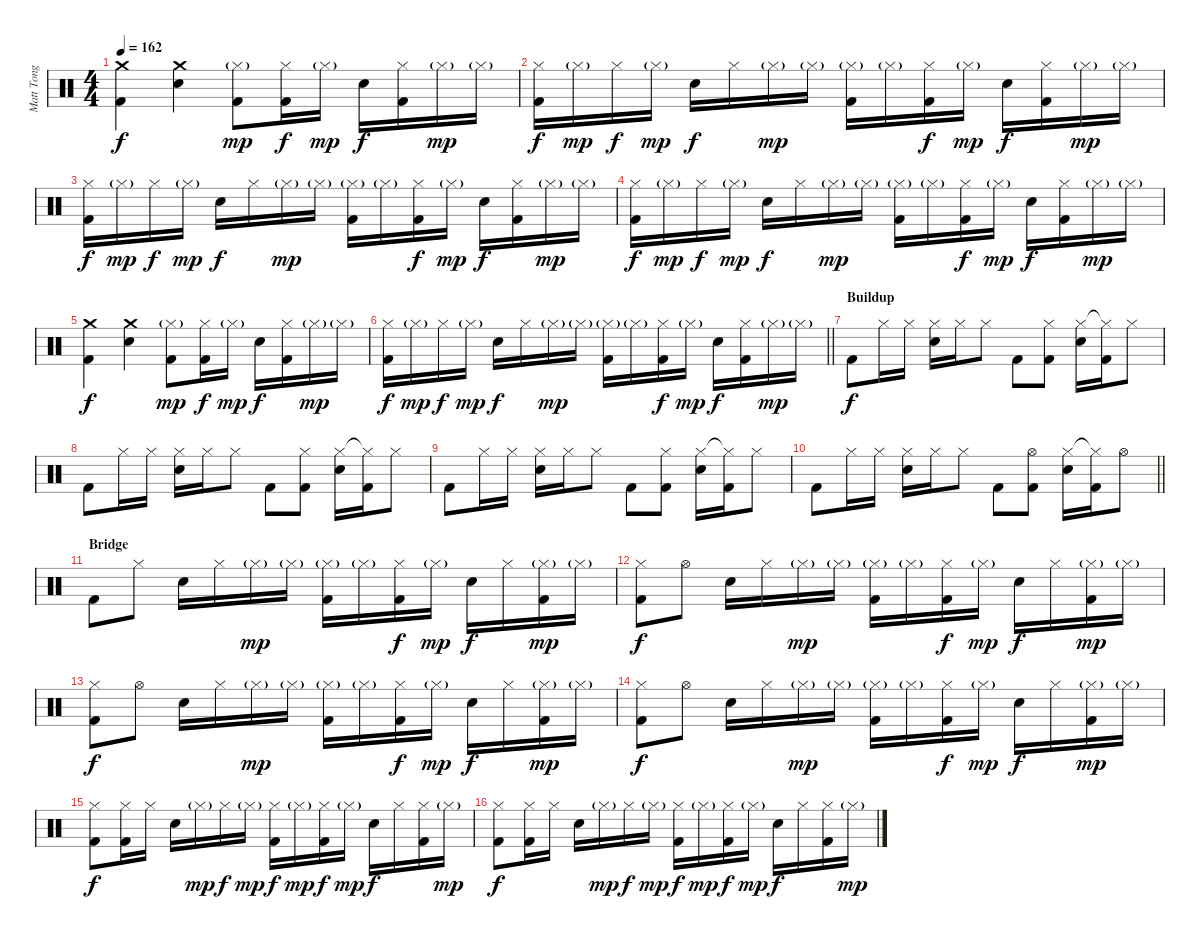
\track ("Matt Tong" "Matt Tong") {instrument percussion}
\staff {score}
\articulation defaults
\ts (4 4)
\tempo 162
\clef neutral
\ks c
("Crash medium (hit)" "Kick (hit) 2").4{dy f} ("Crash medium (hit)" "Snare (hit) 2").4 ("Hi-Hat (closed)"{g} "Kick (hit) 2").8{dy mp} ("Hi-Hat (closed)" "Kick (hit) 2").16{dy f} "Hi-Hat (closed)"{g}.16{dy mp} "Snare (hit) 2".16{dy f} ("Hi-Hat (closed)" "Kick (hit) 2").16 "Hi-Hat (closed)"{g}.16{dy mp} "Hi-Hat (closed)"{g}.16 |
("Hi-Hat (closed)" "Kick (hit) 2").16{dy f} "Hi-Hat (closed)"{g}.16{dy mp} "Hi-Hat (closed)".16{dy f} "Hi-Hat (closed)"{g}.16{dy mp} "Snare (hit) 2".16{dy f} "Hi-Hat (closed)".16 "Hi-Hat (closed)"{g}.16{dy mp} "Hi-Hat (closed)"{g}.16 ("Hi-Hat (closed)"{g} "Kick (hit) 2").16 "Hi-Hat (closed)"{g}.16 ("Hi-Hat (closed)" "Kick (hit) 2").16{dy f} "Hi-Hat (closed)"{g}.16{dy mp} "Snare (hit) 2".16{dy f} ("Hi-Hat (closed)" "Kick (hit) 2").16 "Hi-Hat (closed)"{g}.16{dy mp} "Hi-Hat (closed)"{g}.16 |
("Hi-Hat (closed)" "Kick (hit) 2").16{dy f} "Hi-Hat (closed)"{g}.16{dy mp} "Hi-Hat (closed)".16{dy f} "Hi-Hat (closed)"{g}.16{dy mp} "Snare (hit) 2".16{dy f} "Hi-Hat (closed)".16 "Hi-Hat (closed)"{g}.16{dy mp} "Hi-Hat (closed)"{g}.16 ("Hi-Hat (closed)"{g} "Kick (hit) 2").16 "Hi-Hat (closed)"{g}.16 ("Hi-Hat (closed)" "Kick (hit) 2").16{dy f} "Hi-Hat (closed)"{g}.16{dy mp} "Snare (hit) 2".16{dy f} ("Hi-Hat (closed)" "Kick (hit) 2").16 "Hi-Hat (closed)"{g}.16{dy mp} "Hi-Hat (closed)"{g}.16 |
("Hi-Hat (closed)" "Kick (hit) 2").16{dy f} "Hi-Hat (closed)"{g}.16{dy mp} "Hi-Hat (closed)".16{dy f} "Hi-Hat (closed)"{g}.16{dy mp} "Snare (hit) 2".16{dy f} "Hi-Hat (closed)".16 "Hi-Hat (closed)"{g}.16{dy mp} "Hi-Hat (closed)"{g}.16 ("Hi-Hat (closed)"{g} "Kick (hit) 2").16 "Hi-Hat (closed)"{g}.16 ("Hi-Hat (closed)" "Kick (hit) 2").16{dy f} "Hi-Hat (closed)"{g}.16{dy mp} "Snare (hit) 2".16{dy f} ("Hi-Hat (closed)" "Kick (hit) 2").16 "Hi-Hat (closed)"{g}.16{dy mp} "Hi-Hat (closed)"{g}.16 |
("Crash medium (hit)" "Kick (hit) 2").4{dy f} ("Crash medium (hit)" "Snare (hit) 2").4 ("Hi-Hat (closed)"{g} "Kick (hit) 2").8{dy mp} ("Hi-Hat (closed)" "Kick (hit) 2").16{dy f} "Hi-Hat (closed)"{g}.16{dy mp} "Snare (hit) 2".16{dy f} ("Hi-Hat (closed)" "Kick (hit) 2").16 "Hi-Hat (closed)"{g}.16{dy mp} "Hi-Hat (closed)"{g}.16 |
\barLineRight lightlight
("Hi-Hat (closed)" "Kick (hit) 2").16{dy f} "Hi-Hat (closed)"{g}.16{dy mp} "Hi-Hat (closed)".16{dy f} "Hi-Hat (closed)"{g}.16{dy mp} "Snare (hit) 2".16{dy f} "Hi-Hat (closed)".16 "Hi-Hat (closed)"{g}.16{dy mp} "Hi-Hat (closed)"{g}.16 ("Hi-Hat (closed)"{g} "Kick (hit) 2").16 "Hi-Hat (closed)"{g}.16 ("Hi-Hat (closed)" "Kick (hit) 2").16{dy f} "Hi-Hat (closed)"{g}.16{dy mp} "Snare (hit) 2".16{dy f} ("Hi-Hat (closed)" "Kick (hit) 2").16 "Hi-Hat (closed)"{g}.16{dy mp} "Hi-Hat (closed)"{g}.16 |
\section ("" "Buildup")
"Kick (hit) 2".8{dy f} "Hi-Hat (closed)".16 "Hi-Hat (closed)".16 ("Hi-Hat (closed)" "Snare (hit) 2").16 "Hi-Hat (closed)".16 "Hi-Hat (closed)".8 "Kick (hit) 2".8 ("Hi-Hat (closed)" "Kick (hit) 2").8 ("Hi-Hat (closed)" "Snare (hit) 2").16 ("Hi-Hat (closed)"{t} "Kick (hit) 2").16 "Hi-Hat (closed)".8 |
"Kick (hit) 2".8 "Hi-Hat (closed)".16 "Hi-Hat (closed)".16 ("Hi-Hat (closed)" "Snare (hit) 2").16 "Hi-Hat (closed)".16 "Hi-Hat (closed)".8 "Kick (hit) 2".8 ("Hi-Hat (closed)" "Kick (hit) 2").8 ("Hi-Hat (closed)" "Snare (hit) 2").16 ("Hi-Hat (closed)"{t} "Kick (hit) 2").16 "Hi-Hat (closed)".8 |
"Kick (hit) 2".8 "Hi-Hat (closed)".16 "Hi-Hat (closed)".16 ("Hi-Hat (closed)" "Snare (hit) 2").16 "Hi-Hat (closed)".16 "Hi-Hat (closed)".8 "Kick (hit) 2".8 ("Hi-Hat (closed)" "Kick (hit) 2").8 ("Hi-Hat (closed)" "Snare (hit) 2").16 ("Hi-Hat (closed)"{t} "Kick (hit) 2").16 "Hi-Hat (closed)".8 |
\barLineRight lightlight "Kick (hit) 2".8 "Hi-Hat (closed)".16 "Hi-Hat (closed)".16
("Hi-Hat (closed)" "Snare (hit) 2").16 "Hi-Hat (closed)".16 "Hi-Hat (closed)".8 "Kick (hit) 2".8 ("Hi-Hat (open)" "Kick (hit) 2").8 ("Hi-Hat (closed)" "Snare (hit) 2").16 ("Hi-Hat (closed)"{t} "Kick (hit) 2").16 "Hi-Hat (open)".8 |
\section ("" "Bridge")
"Kick (hit) 2".8 "Hi-Hat (closed)".8 "Snare (hit) 2".16 "Hi-Hat (closed)".16 "Hi-Hat (closed)"{g}.16{dy mp} "Hi-Hat (closed)"{g}.16 ("Hi-Hat (closed)"{g} "Kick (hit) 2").16 "Hi-Hat (closed)"{g}.16 ("Hi-Hat (closed)" "Kick (hit) 2").16{dy f} "Hi-Hat (closed)"{g}.16{dy mp} "Snare (hit) 2".16{dy f} "Hi-Hat (closed)".16 ("Hi-Hat (closed)"{g} "Kick (hit) 2").16{dy mp} "Hi-Hat (closed)"{g}.16 |
("Hi-Hat (closed)" "Kick (hit) 2").8{dy f} "Hi-Hat (open)".8 "Snare (hit) 2".16 "Hi-Hat (closed)".16 "Hi-Hat (closed)"{g}.16{dy mp} "Hi-Hat (closed)"{g}.16 ("Hi-Hat (closed)"{g} "Kick (hit) 2").16 "Hi-Hat (closed)"{g}.16 ("Hi-Hat (closed)" "Kick (hit) 2").16{dy f} "Hi-Hat (closed)"{g}.16{dy mp} "Snare (hit) 2".16{dy f} "Hi-Hat (closed)".16 ("Hi-Hat (closed)"{g} "Kick (hit) 2").16{dy mp} "Hi-Hat (closed)"{g}.16 |
("Hi-Hat (closed)" "Kick (hit) 2").8{dy f} "Hi-Hat (open)".8 "Snare (hit) 2".16 "Hi-Hat (closed)".16 "Hi-Hat (closed)"{g}.16{dy mp} "Hi-Hat (closed)"{g}.16 ("Hi-Hat (closed)"{g} "Kick (hit) 2").16 "Hi-Hat (closed)"{g}.16 ("Hi-Hat (closed)" "Kick (hit) 2").16{dy f} "Hi-Hat (closed)"{g}.16{dy mp} "Snare (hit) 2".16{dy f} "Hi-Hat (closed)".16 ("Hi-Hat (closed)"{g} "Kick (hit) 2").16{dy mp} "Hi-Hat (closed)"{g}.16 |
("Hi-Hat (closed)" "Kick (hit) 2").8{dy f} "Hi-Hat (open)".8 "Snare (hit) 2".16 "Hi-Hat (closed)".16 "Hi-Hat (closed)"{g}.16{dy mp} "Hi-Hat (closed)"{g}.16 ("Hi-Hat (closed)"{g} "Kick (hit) 2").16 "Hi-Hat (closed)"{g}.16 ("Hi-Hat (closed)" "Kick (hit) 2").16{dy f} "Hi-Hat (closed)"{g}.16{dy mp} "Snare (hit) 2".16{dy f} "Hi-Hat (closed)".16 ("Hi-Hat (closed)"{g} "Kick (hit) 2").16{dy mp} "Hi-Hat (closed)"{g}.16 |
("Hi-Hat (closed)" "Kick (hit) 2").8{dy f} ("Hi-Hat (closed)" "Kick (hit) 2").16 "Hi-Hat (closed)".16 "Snare (hit) 2".16 "Hi-Hat (closed)"{g}.16{dy mp} "Hi-Hat (closed)".16{dy f} "Hi-Hat (closed)"{g}.16{dy mp} ("Hi-Hat (closed)" "Kick (hit) 2").16{dy f} "Hi-Hat (closed)"{g}.16{dy mp} ("Hi-Hat (closed)" "Kick (hit) 2").16{dy f} "Hi-Hat (closed)"{g}.16{dy mp} "Snare (hit) 2".16{dy f} "Hi-Hat (closed)".16 ("Hi-Hat (closed)" "Kick (hit) 2").16 "Hi-Hat (closed)"{g}.16{dy mp} |
("Hi-Hat (closed)" "Kick (hit) 2").8{dy f} ("Hi-Hat (closed)" "Kick (hit) 2").16 "Hi-Hat (closed)".16 "Snare (hit) 2".16 "Hi-Hat (closed)"{g}.16{dy mp} "Hi-Hat (closed)".16{dy f} "Hi-Hat (closed)"{g}.16{dy mp} ("Hi-Hat (closed)" "Kick (hit) 2").16{dy f} "Hi-Hat (closed)"{g}.16{dy mp} ("Hi-Hat (closed)" "Kick (hit) 2").16{dy f} "Hi-Hat (closed)"{g}.16{dy mp} "Snare (hit) 2".16{dy f} "Hi-Hat (closed)".16 ("Hi-Hat (closed)" "Kick (hit) 2").16 "Hi-Hat (closed)"{g}.16{dy mp}
